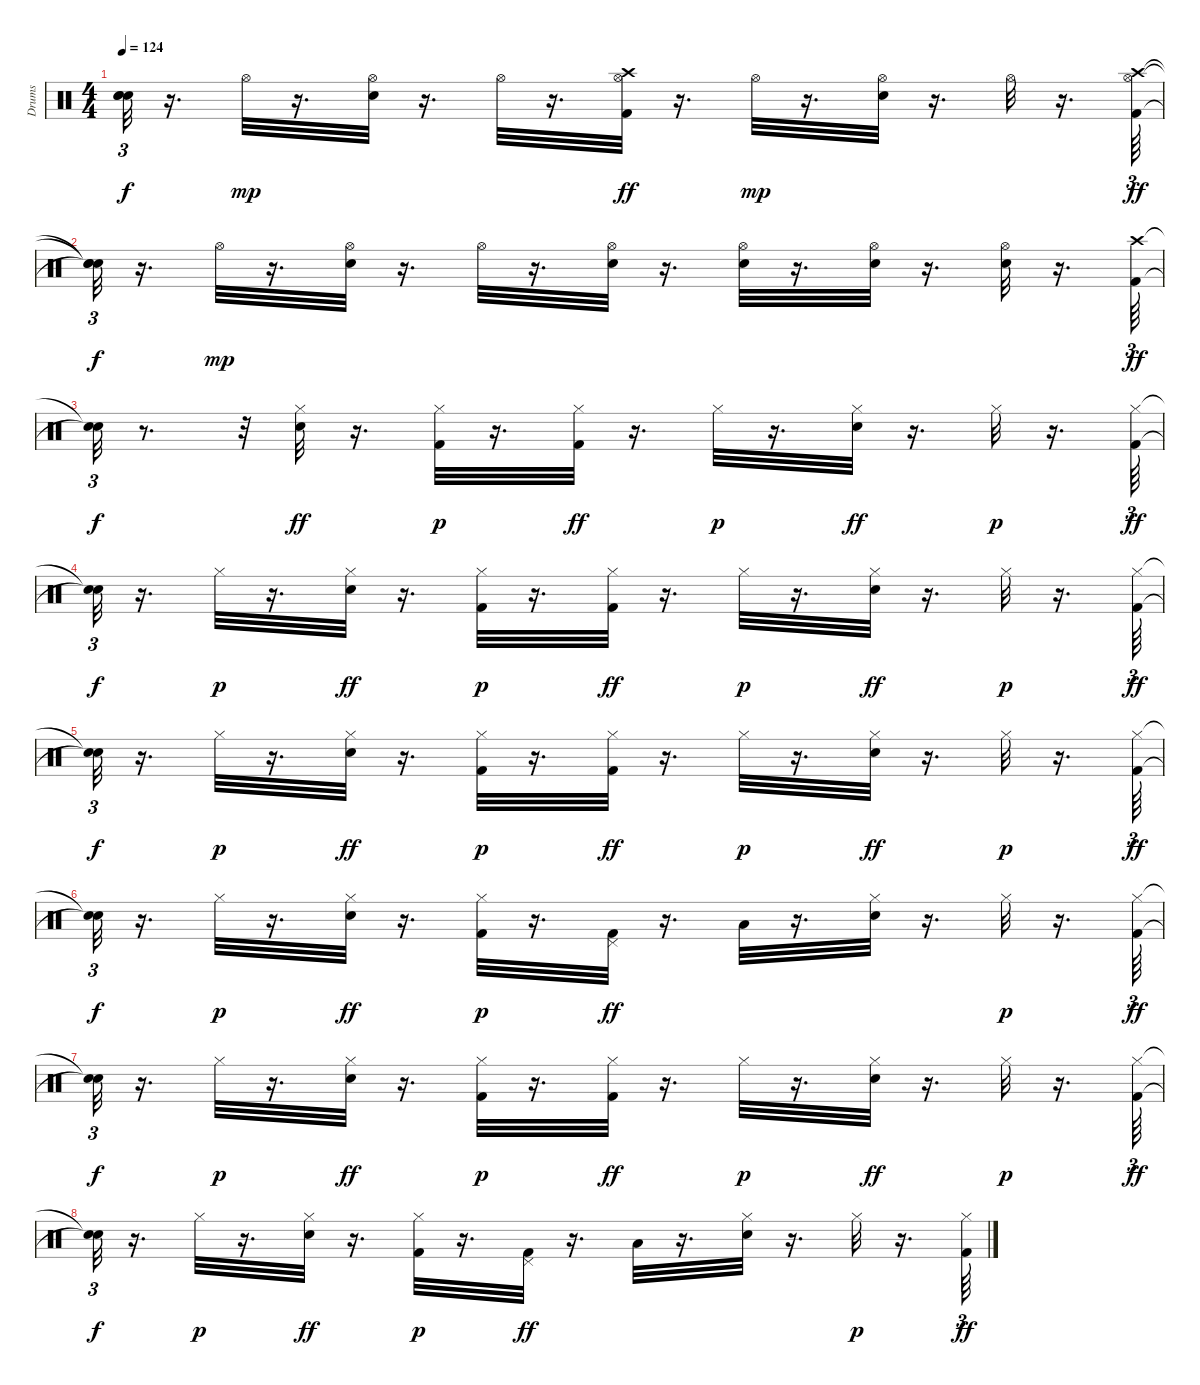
\track ("Drums" "Drums") {instrument percussion}
\staff {score}
\articulation defaults
\ts (4 4)
\tempo 124
\clef neutral
\ks c
("Snare (hit)"{t} "Snare (hit)"{t} "Snare (hit)"{t}).32{tu (3 2) dy f} r.16{d} "Hi-Hat (open)".32{dy mp} r.16{d} ("Snare (hit) 2" "Hi-Hat (open)").32 r.16{d} "Hi-Hat (open)".32 r.16{d} ("Kick (hit) 2" "Hi-Hat (open)" "Crash high (hit)").32{dy ff} r.16{d} "Hi-Hat (open)".32{dy mp} r.16{d} ("Snare (hit) 2" "Hi-Hat (open)").32 r.16{d} "Hi-Hat (open)".32 r.16{d} ("Kick (hit) 2" "Hi-Hat (open)" "Crash high (hit)").64{tu (3 2) dy ff} |
("Snare (hit)"{t} "Snare (hit)"{t} "Snare (hit)"{t}).32{tu (3 2) dy f} r.16{d} "Hi-Hat (open)".32{dy mp} r.16{d} ("Snare (hit) 2" "Hi-Hat (open)").32 r.16{d} "Hi-Hat (open)".32 r.16{d} ("Snare (hit) 2" "Hi-Hat (open)").32 r.16{d} ("Snare (hit) 2" "Hi-Hat (open)").32 r.16{d} ("Snare (hit) 2" "Hi-Hat (open)").32 r.16{d} ("Snare (hit) 2" "Hi-Hat (open)").32 r.16{d} ("Kick (hit) 2" "Crash high (hit)").64{tu (3 2) dy ff} |
("Snare (hit)"{t} "Snare (hit)"{t}).32{tu (3 2) dy f} r.8{d} r.32 ("Snare (hit) 2" "Hi-Hat (closed)").32{dy ff} r.16{d} ("Kick (hit) 2" "Hi-Hat (closed)").32{dy p} r.16{d} ("Kick (hit) 2" "Hi-Hat (closed)").32{dy ff} r.16{d} "Hi-Hat (closed)".32{dy p} r.16{d} ("Snare (hit) 2" "Hi-Hat (closed)").32{dy ff} r.16{d} "Hi-Hat (closed)".32{dy p} r.16{d} ("Kick (hit) 2" "Hi-Hat (closed)").64{tu (3 2) dy ff} |
("Snare (hit)"{t} "Snare (hit)"{t}).32{tu (3 2) dy f} r.16{d} "Hi-Hat (closed)".32{dy p} r.16{d} ("Snare (hit) 2" "Hi-Hat (closed)").32{dy ff} r.16{d} ("Kick (hit) 2" "Hi-Hat (closed)").32{dy p} r.16{d} ("Kick (hit) 2" "Hi-Hat (closed)").32{dy ff} r.16{d} "Hi-Hat (closed)".32{dy p} r.16{d} ("Snare (hit) 2" "Hi-Hat (closed)").32{dy ff} r.16{d} "Hi-Hat (closed)".32{dy p} r.16{d} ("Kick (hit) 2" "Hi-Hat (closed)").64{tu (3 2) dy ff} |
("Snare (hit)"{t} "Snare (hit)"{t}).32{tu (3 2) dy f} r.16{d} "Hi-Hat (closed)".32{dy p} r.16{d} ("Snare (hit) 2" "Hi-Hat (closed)").32{dy ff} r.16{d} ("Kick (hit) 2" "Hi-Hat (closed)").32{dy p} r.16{d} ("Kick (hit) 2" "Hi-Hat (closed)").32{dy ff} r.16{d} "Hi-Hat (closed)".32{dy p} r.16{d} ("Snare (hit) 2" "Hi-Hat (closed)").32{dy ff} r.16{d} "Hi-Hat (closed)".32{dy p} r.16{d} ("Kick (hit) 2" "Hi-Hat (closed)").64{tu (3 2) dy ff} |
("Snare (hit)"{t} "Snare (hit)"{t}).32{tu (3 2) dy f} r.16{d} "Hi-Hat (closed)".32{dy p} r.16{d} ("Snare (hit) 2" "Hi-Hat (closed)").32{dy ff} r.16{d} ("Kick (hit) 2" "Hi-Hat (closed)").32{dy p} r.16{d} ("Kick (hit) 2" "Pedal Hi-Hat (hit)").32{dy ff} r.16{d} "Low Floor Tom (hit)".32 r.16{d} ("Snare (hit) 2" "Hi-Hat (closed)").32 r.16{d} "Hi-Hat (closed)".32{dy p} r.16{d} ("Kick (hit) 2" "Hi-Hat (closed)").64{tu (3 2) dy ff} |
("Snare (hit)"{t} "Snare (hit)"{t}).32{tu (3 2) dy f} r.16{d} "Hi-Hat (closed)".32{dy p} r.16{d} ("Snare (hit) 2" "Hi-Hat (closed)").32{dy ff} r.16{d} ("Kick (hit) 2" "Hi-Hat (closed)").32{dy p} r.16{d} ("Kick (hit) 2" "Hi-Hat (closed)").32{dy ff} r.16{d} "Hi-Hat (closed)".32{dy p} r.16{d} ("Snare (hit) 2" "Hi-Hat (closed)").32{dy ff} r.16{d} "Hi-Hat (closed)".32{dy p} r.16{d} ("Kick (hit) 2" "Hi-Hat (closed)").64{tu (3 2) dy ff} |
("Snare (hit)"{t} "Snare (hit)"{t}).32{tu (3 2) dy f} r.16{d} "Hi-Hat (closed)".32{dy p} r.16{d} ("Snare (hit) 2" "Hi-Hat (closed)").32{dy ff} r.16{d} ("Kick (hit) 2" "Hi-Hat (closed)").32{dy p} r.16{d} ("Kick (hit) 2" "Pedal Hi-Hat (hit)").32{dy ff} r.16{d} "Low Floor Tom (hit)".32 r.16{d} ("Snare (hit) 2" "Hi-Hat (closed)").32 r.16{d} "Hi-Hat (closed)".32{dy p} r.16{d} ("Kick (hit) 2" "Hi-Hat (closed)").64{tu (3 2) dy ff}
